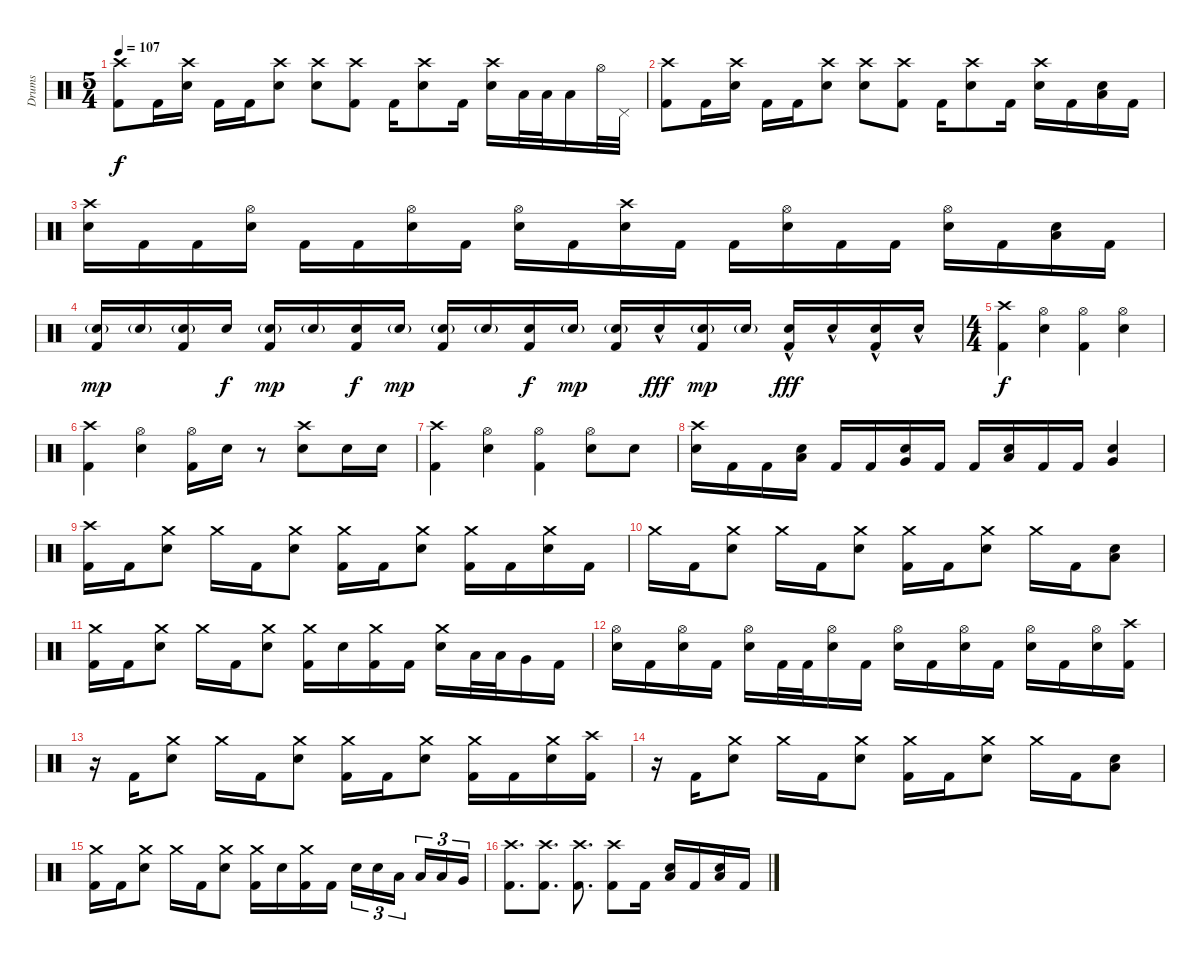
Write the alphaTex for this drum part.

\track ("Drums" "Drums") {instrument percussion}
\staff {score}
\articulation defaults
\ts (5 4)
\tempo 107
\clef neutral
\ks c
("Crash high (hit)" "Kick (hit) 2").8{dy f} "Kick (hit) 2".16 ("Crash high (hit)" "Snare (hit) 2").16 "Kick (hit) 2".16 "Kick (hit) 2".16 ("Crash high (hit)" "Snare (hit) 2").8 ("Crash high (hit)" "Snare (hit) 2").8 ("Crash high (hit)" "Kick (hit) 2").8 "Kick (hit) 2".16 ("Crash high (hit)" "Snare (hit) 2").8 "Kick (hit) 2".16 ("Crash high (hit)" "Snare (hit) 2").16 "Low Tom (hit)".32 "Low Tom (hit)".32 "Low Floor Tom (hit)".16 "Hi-Hat (open)".32 "Pedal Hi-Hat (hit)".32 |
("Crash high (hit)" "Kick (hit) 2").8 "Kick (hit) 2".16 ("Crash high (hit)" "Snare (hit) 2").16 "Kick (hit) 2".16 "Kick (hit) 2".16 ("Crash high (hit)" "Snare (hit) 2").8 ("Crash high (hit)" "Snare (hit) 2").8 ("Crash high (hit)" "Kick (hit) 2").8 "Kick (hit) 2".16 ("Crash high (hit)" "Snare (hit) 2").8 "Kick (hit) 2".16 ("Crash high (hit)" "Snare (hit) 2").16 "Kick (hit) 2".16 ("Low Floor Tom (hit)" "Snare (hit) 2").16 "Kick (hit) 2".16 |
("Crash high (hit)" "Snare (hit) 2").16 "Kick (hit) 2".16 "Kick (hit) 2".16 ("Hi-Hat (open)" "Snare (hit) 2").16 "Kick (hit) 2".16 "Kick (hit) 2".16 ("Hi-Hat (open)" "Snare (hit) 2").16 "Kick (hit) 2".16 ("Hi-Hat (open)" "Snare (hit) 2").16 "Kick (hit) 2".16 ("Crash high (hit)" "Snare (hit) 2").16 "Kick (hit) 2".16 "Kick (hit) 2".16 ("Hi-Hat (open)" "Snare (hit) 2").16 "Kick (hit) 2".16 "Kick (hit) 2".16 ("Hi-Hat (open)" "Snare (hit) 2").16 "Kick (hit) 2".16 ("Low Floor Tom (hit)" "Snare (hit) 2").16 "Kick (hit) 2".16 |
("Snare (hit) 2"{g} "Kick (hit) 2").16{dy mp} "Snare (hit) 2"{g}.16 ("Snare (hit) 2"{g} "Kick (hit) 2").16 "Snare (hit) 2".16{dy f} ("Snare (hit) 2"{g} "Kick (hit) 2").16{dy mp} "Snare (hit) 2"{g}.16 ("Snare (hit) 2" "Kick (hit) 2").16{dy f} "Snare (hit) 2"{g}.16{dy mp} ("Snare (hit) 2"{g} "Kick (hit) 2").16 "Snare (hit) 2"{g}.16 ("Snare (hit) 2" "Kick (hit) 2").16{dy f} "Snare (hit) 2"{g}.16{dy mp} ("Snare (hit) 2"{g} "Kick (hit) 2").16 "Snare (hit) 2"{hac}.16{dy fff} ("Snare (hit) 2"{g} "Kick (hit) 2").16{dy mp} "Snare (hit) 2"{g}.16 ("Snare (hit) 2"{hac} "Kick (hit) 2").16{dy fff} "Snare (hit) 2"{hac}.16 ("Snare (hit) 2"{hac} "Kick (hit) 2").16 "Snare (hit) 2"{hac}.16 |
\ts (4 4)
("Crash high (hit)" "Kick (hit) 2").4{dy f} ("Hi-Hat (open)" "Snare (hit) 2").4 ("Hi-Hat (open)" "Kick (hit) 2").4 ("Hi-Hat (open)" "Snare (hit) 2").4 |
("Crash high (hit)" "Kick (hit) 2").4 ("Hi-Hat (open)" "Snare (hit) 2").4 ("Hi-Hat (open)" "Kick (hit) 2").16 "Snare (hit) 2".16 r.8 ("Crash high (hit)" "Snare (hit) 2").8 "Snare (hit) 2".16 "Snare (hit) 2".16 |
("Crash high (hit)" "Kick (hit) 2").4 ("Hi-Hat (open)" "Snare (hit) 2").4 ("Hi-Hat (open)" "Kick (hit) 2").4 ("Hi-Hat (open)" "Snare (hit) 2").8 "Snare (hit) 2".8 |
("Crash high (hit)" "Snare (hit) 2").16 "Kick (hit) 2".16 "Kick (hit) 2".16 ("Low Floor Tom (hit)" "Snare (hit) 2").16 "Kick (hit) 2".16 "Kick (hit) 2".16 ("Very Low Tom (hit)" "Snare (hit) 2").16 "Kick (hit) 2".16 "Kick (hit) 2".16 ("Low Floor Tom (hit)" "Snare (hit) 2").16 "Kick (hit) 2".16 "Kick (hit) 2".16 ("Very Low Tom (hit)" "Snare (hit) 2").4 |
("Crash high (hit)" "Kick (hit) 2").16 "Kick (hit) 2".16 ("Crash medium (hit)" "Snare (hit) 2").8 "Crash medium (hit)".16 "Kick (hit) 2".16 ("Crash medium (hit)" "Snare (hit) 2").8 ("Crash medium (hit)" "Kick (hit) 2").16 "Kick (hit) 2".16 ("Crash medium (hit)" "Snare (hit) 2").8 ("Crash medium (hit)" "Kick (hit) 2").16 "Kick (hit) 2".16 ("Crash medium (hit)" "Snare (hit) 2").16 "Kick (hit) 2".16 |
"Crash medium (hit)".16 "Kick (hit) 2".16 ("Crash medium (hit)" "Snare (hit) 2").8 "Crash medium (hit)".16 "Kick (hit) 2".16 ("Crash medium (hit)" "Snare (hit) 2").8 ("Crash medium (hit)" "Kick (hit) 2").16 "Kick (hit) 2".16 ("Crash medium (hit)" "Snare (hit) 2").8 "Crash medium (hit)".16 "Kick (hit) 2".16 ("Low Floor Tom (hit)" "Snare (hit) 2").8 |
("Crash medium (hit)" "Kick (hit) 2").16 "Kick (hit) 2".16 ("Crash medium (hit)" "Snare (hit) 2").8 "Crash medium (hit)".16 "Kick (hit) 2".16 ("Crash medium (hit)" "Snare (hit) 2").8 ("Crash medium (hit)" "Kick (hit) 2").16 "Snare (hit) 2".16 ("Crash medium (hit)" "Kick (hit) 2").16 "Kick (hit) 2".16 ("Crash medium (hit)" "Snare (hit) 2").16 "Low Tom (hit)".32 "Low Tom (hit)".32 "Very Low Tom (hit)".16 "Kick (hit) 2".16 |
("Hi-Hat (open)" "Snare (hit) 2").16 "Kick (hit) 2".16 ("Hi-Hat (open)" "Snare (hit) 2").16 "Kick (hit) 2".16 ("Hi-Hat (open)" "Snare (hit) 2").16 "Kick (hit) 2".32 "Kick (hit) 2".32 ("Hi-Hat (open)" "Snare (hit) 2").16 "Kick (hit) 2".16 ("Hi-Hat (open)" "Snare (hit) 2").16 "Kick (hit) 2".16 ("Hi-Hat (open)" "Snare (hit) 2").16 "Kick (hit) 2".16 ("Hi-Hat (open)" "Snare (hit) 2").16 "Kick (hit) 2".16 ("Hi-Hat (open)" "Snare (hit) 2").16 ("Crash high (hit)" "Kick (hit) 2").16 |
r.16 "Kick (hit) 2".16 ("Crash medium (hit)" "Snare (hit) 2").8 "Crash medium (hit)".16 "Kick (hit) 2".16 ("Crash medium (hit)" "Snare (hit) 2").8 ("Crash medium (hit)" "Kick (hit) 2").16 "Kick (hit) 2".16 ("Crash medium (hit)" "Snare (hit) 2").8 ("Crash medium (hit)" "Kick (hit) 2").16 "Kick (hit) 2".16 ("Crash medium (hit)" "Snare (hit) 2").16 ("Crash high (hit)" "Kick (hit) 2").16 |
r.16 "Kick (hit) 2".16 ("Crash medium (hit)" "Snare (hit) 2").8 "Crash medium (hit)".16 "Kick (hit) 2".16 ("Crash medium (hit)" "Snare (hit) 2").8 ("Crash medium (hit)" "Kick (hit) 2").16 "Kick (hit) 2".16 ("Crash medium (hit)" "Snare (hit) 2").8 "Crash medium (hit)".16 "Kick (hit) 2".16 ("Low Floor Tom (hit)" "Snare (hit) 2").8 |
("Crash medium (hit)" "Kick (hit) 2").16 "Kick (hit) 2".16 ("Crash medium (hit)" "Snare (hit) 2").8 "Crash medium (hit)".16 "Kick (hit) 2".16 ("Crash medium (hit)" "Snare (hit) 2").8 ("Crash medium (hit)" "Kick (hit) 2").16 "Snare (hit) 2".16 ("Crash medium (hit)" "Kick (hit) 2").16 "Kick (hit) 2".16 "Snare (hit) 2".16{tu (3 2)} "Snare (hit) 2".16{tu (3 2)} "Low Tom (hit)".16{tu (3 2) beam splitsecondary} "Low Tom (hit)".16{tu (3 2)} "Low Tom (hit)".16{tu (3 2)} "Very Low Tom (hit)".16{tu (3 2)} |
("Crash high (hit)" "Kick (hit) 2").8{d} ("Crash high (hit)" "Kick (hit) 2").8{d} ("Crash high (hit)" "Kick (hit) 2").8{d} ("Crash high (hit)" "Kick (hit) 2").8 "Kick (hit) 2".16 ("Low Floor Tom (hit)" "Snare (hit) 2").16 "Kick (hit) 2".16 ("Low Floor Tom (hit)" "Snare (hit) 2").16 "Kick (hit) 2".16
